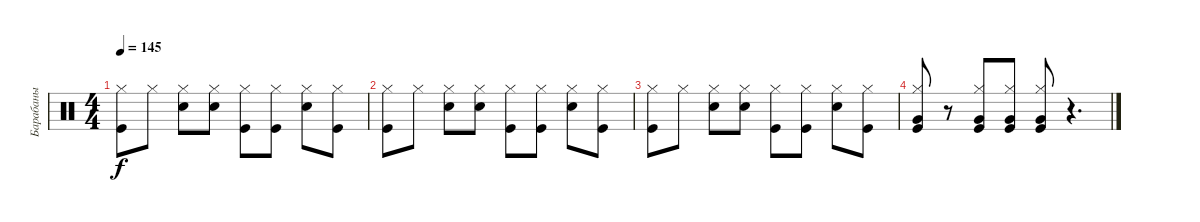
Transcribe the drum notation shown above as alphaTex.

\track ("Барабаны" "Барабаны") {instrument percussion}
\staff {score}
\articulation defaults
\ts (4 4)
\tempo 145
\clef neutral
\ks c
("Kick (hit)" "Hi-Hat (closed)").8{dy f} "Hi-Hat (closed)".8 ("Snare (hit) 2" "Hi-Hat (closed)").8 ("Snare (hit) 2" "Hi-Hat (closed)").8 ("Kick (hit)" "Hi-Hat (closed)").8 ("Kick (hit)" "Hi-Hat (closed)").8 ("Snare (hit) 2" "Hi-Hat (closed)").8 ("Kick (hit)" "Hi-Hat (closed)").8 |
("Kick (hit)" "Hi-Hat (closed)").8 "Hi-Hat (closed)".8 ("Snare (hit) 2" "Hi-Hat (closed)").8 ("Snare (hit) 2" "Hi-Hat (closed)").8 ("Kick (hit)" "Hi-Hat (closed)").8 ("Kick (hit)" "Hi-Hat (closed)").8 ("Snare (hit) 2" "Hi-Hat (closed)").8 ("Kick (hit)" "Hi-Hat (closed)").8 |
("Kick (hit)" "Hi-Hat (closed)").8 "Hi-Hat (closed)".8 ("Snare (hit) 2" "Hi-Hat (closed)").8 ("Snare (hit) 2" "Hi-Hat (closed)").8 ("Kick (hit)" "Hi-Hat (closed)").8 ("Kick (hit)" "Hi-Hat (closed)").8 ("Snare (hit) 2" "Hi-Hat (closed)").8 ("Kick (hit)" "Hi-Hat (closed)").8 |
("Kick (hit)" "Very Low Tom (hit)" "Hi-Hat (closed)").8 r.8 ("Kick (hit)" "Very Low Tom (hit)" "Hi-Hat (closed)").8 ("Kick (hit)" "Very Low Tom (hit)" "Hi-Hat (closed)").8 ("Kick (hit)" "Very Low Tom (hit)" "Hi-Hat (closed)").8 r.4{d}
